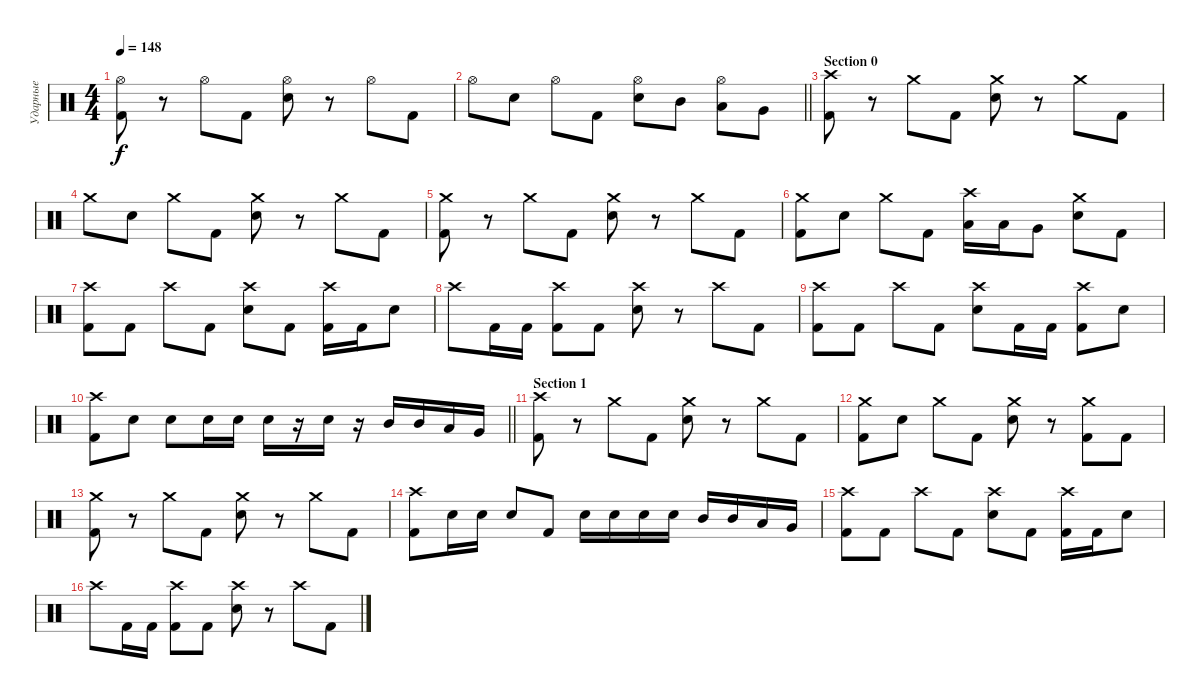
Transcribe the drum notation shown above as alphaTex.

\track ("Ударные" "Ударные") {instrument percussion}
\staff {score}
\articulation defaults
\ts (4 4)
\tempo 148
\clef neutral
\ks c
("Hi-Hat (open)" "Kick (hit) 2").8{dy f} r.8 "Hi-Hat (open)".8 "Kick (hit) 2".8 ("Hi-Hat (open)" "Electric Snare (hit)").8 r.8 "Hi-Hat (open)".8 "Kick (hit) 2".8 |
\barLineRight lightlight "Hi-Hat (open)".8 "Electric Snare (hit)".8 "Hi-Hat (open)".8 "Kick (hit) 2".8
("Hi-Hat (open)" "Electric Snare (hit)").8 "Mid Tom (hit)".8 ("Hi-Hat (open)" "Low Tom (hit)").8 "Very Low Tom (hit)".8 |
\section ("" "Section 0")
("Crash high (hit)" "Kick (hit) 2").8 r.8 "Crash medium (hit)".8 "Kick (hit) 2".8 ("Crash medium (hit)" "Electric Snare (hit)").8 r.8 "Crash medium (hit)".8 "Kick (hit) 2".8 |
"Crash medium (hit)".8 "Electric Snare (hit)".8 "Crash medium (hit)".8 "Kick (hit) 2".8 ("Crash medium (hit)" "Electric Snare (hit)").8 r.8 "Crash medium (hit)".8 "Kick (hit) 2".8 |
("Crash medium (hit)" "Kick (hit) 2").8 r.8 "Crash medium (hit)".8 "Kick (hit) 2".8 ("Crash medium (hit)" "Electric Snare (hit)").8 r.8 "Crash medium (hit)".8 "Kick (hit) 2".8 |
("Crash medium (hit)" "Kick (hit) 2").8 "Electric Snare (hit)".8 "Crash medium (hit)".8 "Kick (hit) 2".8 ("Crash high (hit)" "Low Tom (hit)").16 "Low Tom (hit)".16 "Very Low Tom (hit)".8 ("Crash medium (hit)" "Electric Snare (hit)").8 "Kick (hit) 2".8 |
("Crash high (hit)" "Kick (hit) 2").8 "Kick (hit) 2".8 "Crash high (hit)".8 "Kick (hit) 2".8 ("Crash high (hit)" "Electric Snare (hit)").8 "Kick (hit) 2".8 ("Crash high (hit)" "Kick (hit) 2").16 "Kick (hit) 2".16 "Electric Snare (hit)".8 |
"Crash high (hit)".8 "Kick (hit) 2".16 "Kick (hit) 2".16 ("Crash high (hit)" "Kick (hit) 2").8 "Kick (hit) 2".8 ("Crash high (hit)" "Electric Snare (hit)").8 r.8 "Crash high (hit)".8 "Kick (hit) 2".8 |
("Crash high (hit)" "Kick (hit) 2").8 "Kick (hit) 2".8 "Crash high (hit)".8 "Kick (hit) 2".8 ("Crash high (hit)" "Electric Snare (hit)").8 "Kick (hit) 2".16 "Kick (hit) 2".16 ("Crash high (hit)" "Kick (hit) 2").8 "Electric Snare (hit)".8 |
\barLineRight lightlight
("Crash high (hit)" "Kick (hit) 2").8 "Electric Snare (hit)".8 "Electric Snare (hit)".8 "Electric Snare (hit)".16 "Electric Snare (hit)".16 "Electric Snare (hit)".16 r.16 "Electric Snare (hit)".16 r.16 "Mid Tom (hit)".16 "Mid Tom (hit)".16 "Low Tom (hit)".16 "Very Low Tom (hit)".16 |
\section ("" "Section 1")
("Crash high (hit)" "Kick (hit) 2").8 r.8 "Crash medium (hit)".8 "Kick (hit) 2".8 ("Crash medium (hit)" "Electric Snare (hit)").8 r.8 "Crash medium (hit)".8 "Kick (hit) 2".8 |
("Crash medium (hit)" "Kick (hit) 2").8 "Electric Snare (hit)".8 "Crash medium (hit)".8 "Kick (hit) 2".8 ("Crash medium (hit)" "Electric Snare (hit)").8 r.8 ("Crash medium (hit)" "Kick (hit) 2").8 "Kick (hit) 2".8 |
("Crash medium (hit)" "Kick (hit) 2").8 r.8 "Crash medium (hit)".8 "Kick (hit) 2".8 ("Crash medium (hit)" "Electric Snare (hit)").8 r.8 "Crash medium (hit)".8 "Kick (hit) 2".8 |
("Crash high (hit)" "Kick (hit) 2").8 "Electric Snare (hit)".16 "Electric Snare (hit)".16 "Electric Snare (hit)".8 "Kick (hit) 2".8 "Electric Snare (hit)".16 "Electric Snare (hit)".16 "Electric Snare (hit)".16 "Electric Snare (hit)".16 "Mid Tom (hit)".16 "Mid Tom (hit)".16 "Low Tom (hit)".16 "Very Low Tom (hit)".16 |
("Crash high (hit)" "Kick (hit) 2").8 "Kick (hit) 2".8 "Crash high (hit)".8 "Kick (hit) 2".8 ("Crash high (hit)" "Electric Snare (hit)").8 "Kick (hit) 2".8 ("Crash high (hit)" "Kick (hit) 2").16 "Kick (hit) 2".16 "Electric Snare (hit)".8 |
"Crash high (hit)".8 "Kick (hit) 2".16 "Kick (hit) 2".16 ("Crash high (hit)" "Kick (hit) 2").8 "Kick (hit) 2".8 ("Crash high (hit)" "Electric Snare (hit)").8 r.8 "Crash high (hit)".8 "Kick (hit) 2".8
